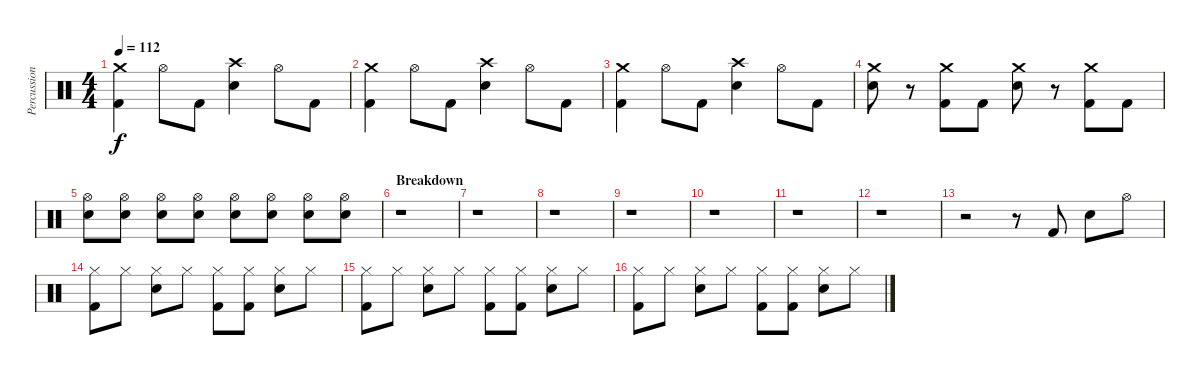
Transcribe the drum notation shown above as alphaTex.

\track ("Percussion" "Percussion") {instrument percussion}
\staff {score}
\articulation defaults
\ts (4 4)
\tempo 112
\clef neutral
\ks c
("Crash medium (hit)" "Kick (hit) 2").4{dy f} "Hi-Hat (open)".8 "Kick (hit) 2".8 ("Crash high (hit)" "Snare (hit) 2").4 "Hi-Hat (open)".8 "Kick (hit) 2".8 |
("Crash medium (hit)" "Kick (hit) 2").4 "Hi-Hat (open)".8 "Kick (hit) 2".8 ("Crash high (hit)" "Snare (hit) 2").4 "Hi-Hat (open)".8 "Kick (hit) 2".8 |
("Crash medium (hit)" "Kick (hit) 2").4 "Hi-Hat (open)".8 "Kick (hit) 2".8 ("Crash high (hit)" "Snare (hit) 2").4 "Hi-Hat (open)".8 "Kick (hit) 2".8 |
("Crash medium (hit)" "Snare (hit) 2").8 r.8 ("Crash medium (hit)" "Kick (hit) 2").8 "Kick (hit) 2".8 ("Crash medium (hit)" "Snare (hit) 2").8 r.8 ("Crash medium (hit)" "Kick (hit) 2").8 "Kick (hit) 2".8 |
("Hi-Hat (open)" "Snare (hit) 2").8 ("Hi-Hat (open)" "Snare (hit) 2").8 ("Hi-Hat (open)" "Snare (hit) 2").8 ("Hi-Hat (open)" "Snare (hit) 2").8 ("Hi-Hat (open)" "Snare (hit) 2").8 ("Hi-Hat (open)" "Snare (hit) 2").8 ("Hi-Hat (open)" "Snare (hit) 2").8 ("Hi-Hat (open)" "Snare (hit) 2").8 |
\section ("" "Breakdown")
r.1 |
r.1 |
r.1 |
r.1 |
r.1 |
r.1 |
r.1 |
r.2 r.8 "Kick (hit) 2".8 "Snare (hit) 2".8 "Hi-Hat (open)".8 |
("Hi-Hat (closed)" "Kick (hit) 2").8 "Hi-Hat (closed)".8 ("Hi-Hat (closed)" "Snare (hit) 2").8 "Hi-Hat (closed)".8 ("Hi-Hat (closed)" "Kick (hit) 2").8 ("Hi-Hat (closed)" "Kick (hit) 2").8 ("Hi-Hat (closed)" "Snare (hit) 2").8 "Hi-Hat (closed)".8 |
("Hi-Hat (closed)" "Kick (hit) 2").8 "Hi-Hat (closed)".8 ("Hi-Hat (closed)" "Snare (hit) 2").8 "Hi-Hat (closed)".8 ("Hi-Hat (closed)" "Kick (hit) 2").8 ("Hi-Hat (closed)" "Kick (hit) 2").8 ("Hi-Hat (closed)" "Snare (hit) 2").8 "Hi-Hat (closed)".8 |
("Hi-Hat (closed)" "Kick (hit) 2").8 "Hi-Hat (closed)".8 ("Hi-Hat (closed)" "Snare (hit) 2").8 "Hi-Hat (closed)".8 ("Hi-Hat (closed)" "Kick (hit) 2").8 ("Hi-Hat (closed)" "Kick (hit) 2").8 ("Hi-Hat (closed)" "Snare (hit) 2").8 "Hi-Hat (closed)".8
